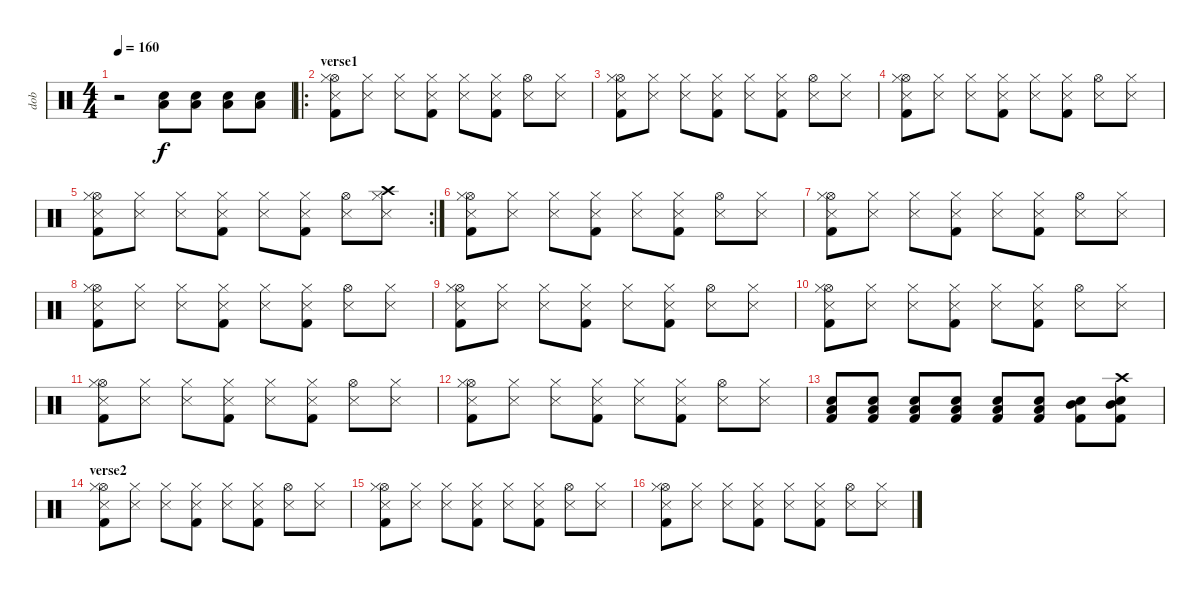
\track ("dob" "dob") {instrument percussion}
\staff {score}
\articulation defaults
\ts (4 4)
\tempo 160
\clef neutral
\ks c
r.2{dy f} ("Low Floor Tom (hit)" "Snare (hit) 2").8 ("Low Floor Tom (hit)" "Snare (hit) 2").8 ("Low Floor Tom (hit)" "Snare (hit) 2").8 ("Low Floor Tom (hit)" "Snare (hit) 2").8 |
\ro
\section ("" "verse1")
("Hi-Hat (open)" "Hi-Hat (closed)" "Snare (side stick) 3" "Kick (hit) 2").8 ("Hi-Hat (closed)" "Snare (side stick) 3").8 ("Hi-Hat (closed)" "Snare (side stick) 3").8 ("Hi-Hat (closed)" "Snare (side stick) 3" "Kick (hit) 2").8 ("Hi-Hat (closed)" "Snare (side stick) 3").8 ("Hi-Hat (closed)" "Snare (side stick) 3" "Kick (hit) 2").8 ("Hi-Hat (open)" "Snare (side stick) 3").8 ("Hi-Hat (closed)" "Snare (side stick) 3").8 |
("Hi-Hat (open)" "Hi-Hat (closed)" "Snare (side stick) 3" "Kick (hit) 2").8 ("Hi-Hat (closed)" "Snare (side stick) 3").8 ("Hi-Hat (closed)" "Snare (side stick) 3").8 ("Hi-Hat (closed)" "Snare (side stick) 3" "Kick (hit) 2").8 ("Hi-Hat (closed)" "Snare (side stick) 3").8 ("Hi-Hat (closed)" "Snare (side stick) 3" "Kick (hit) 2").8 ("Hi-Hat (open)" "Snare (side stick) 3").8 ("Hi-Hat (closed)" "Snare (side stick) 3").8 |
("Hi-Hat (open)" "Hi-Hat (closed)" "Snare (side stick) 3" "Kick (hit) 2").8 ("Hi-Hat (closed)" "Snare (side stick) 3").8 ("Hi-Hat (closed)" "Snare (side stick) 3").8 ("Hi-Hat (closed)" "Snare (side stick) 3" "Kick (hit) 2").8 ("Hi-Hat (closed)" "Snare (side stick) 3").8 ("Hi-Hat (closed)" "Snare (side stick) 3" "Kick (hit) 2").8 ("Hi-Hat (open)" "Snare (side stick) 3").8 ("Hi-Hat (closed)" "Snare (side stick) 3").8 |
\rc 2
("Hi-Hat (open)" "Hi-Hat (closed)" "Snare (side stick) 3" "Kick (hit) 2").8 ("Hi-Hat (closed)" "Snare (side stick) 3").8 ("Hi-Hat (closed)" "Snare (side stick) 3").8 ("Hi-Hat (closed)" "Snare (side stick) 3" "Kick (hit) 2").8 ("Hi-Hat (closed)" "Snare (side stick) 3").8 ("Hi-Hat (closed)" "Snare (side stick) 3" "Kick (hit) 2").8 ("Hi-Hat (open)" "Snare (side stick) 3").8 ("Crash high (hit)" "Hi-Hat (closed)" "Snare (side stick) 3").8 |
("Hi-Hat (open)" "Hi-Hat (closed)" "Snare (side stick) 3" "Kick (hit) 2").8 ("Hi-Hat (closed)" "Snare (side stick) 3").8 ("Hi-Hat (closed)" "Snare (side stick) 3").8 ("Hi-Hat (closed)" "Snare (side stick) 3" "Kick (hit) 2").8 ("Hi-Hat (closed)" "Snare (side stick) 3").8 ("Hi-Hat (closed)" "Snare (side stick) 3" "Kick (hit) 2").8 ("Hi-Hat (open)" "Snare (side stick) 3").8 ("Hi-Hat (closed)" "Snare (side stick) 3").8 |
("Hi-Hat (open)" "Hi-Hat (closed)" "Snare (side stick) 3" "Kick (hit) 2").8 ("Hi-Hat (closed)" "Snare (side stick) 3").8 ("Hi-Hat (closed)" "Snare (side stick) 3").8 ("Hi-Hat (closed)" "Snare (side stick) 3" "Kick (hit) 2").8 ("Hi-Hat (closed)" "Snare (side stick) 3").8 ("Hi-Hat (closed)" "Snare (side stick) 3" "Kick (hit) 2").8 ("Hi-Hat (open)" "Snare (side stick) 3").8 ("Hi-Hat (closed)" "Snare (side stick) 3").8 |
("Hi-Hat (open)" "Hi-Hat (closed)" "Snare (side stick) 3" "Kick (hit) 2").8 ("Hi-Hat (closed)" "Snare (side stick) 3").8 ("Hi-Hat (closed)" "Snare (side stick) 3").8 ("Hi-Hat (closed)" "Snare (side stick) 3" "Kick (hit) 2").8 ("Hi-Hat (closed)" "Snare (side stick) 3").8 ("Hi-Hat (closed)" "Snare (side stick) 3" "Kick (hit) 2").8 ("Hi-Hat (open)" "Snare (side stick) 3").8 ("Hi-Hat (closed)" "Snare (side stick) 3").8 |
("Hi-Hat (open)" "Hi-Hat (closed)" "Snare (side stick) 3" "Kick (hit) 2").8 ("Hi-Hat (closed)" "Snare (side stick) 3").8 ("Hi-Hat (closed)" "Snare (side stick) 3").8 ("Hi-Hat (closed)" "Snare (side stick) 3" "Kick (hit) 2").8 ("Hi-Hat (closed)" "Snare (side stick) 3").8 ("Hi-Hat (closed)" "Snare (side stick) 3" "Kick (hit) 2").8 ("Hi-Hat (open)" "Snare (side stick) 3").8 ("Hi-Hat (closed)" "Snare (side stick) 3").8 |
("Hi-Hat (open)" "Hi-Hat (closed)" "Snare (side stick) 3" "Kick (hit) 2").8 ("Hi-Hat (closed)" "Snare (side stick) 3").8 ("Hi-Hat (closed)" "Snare (side stick) 3").8 ("Hi-Hat (closed)" "Snare (side stick) 3" "Kick (hit) 2").8 ("Hi-Hat (closed)" "Snare (side stick) 3").8 ("Hi-Hat (closed)" "Snare (side stick) 3" "Kick (hit) 2").8 ("Hi-Hat (open)" "Snare (side stick) 3").8 ("Hi-Hat (closed)" "Snare (side stick) 3").8 |
("Hi-Hat (open)" "Hi-Hat (closed)" "Snare (side stick) 3" "Kick (hit) 2").8 ("Hi-Hat (closed)" "Snare (side stick) 3").8 ("Hi-Hat (closed)" "Snare (side stick) 3").8 ("Hi-Hat (closed)" "Snare (side stick) 3" "Kick (hit) 2").8 ("Hi-Hat (closed)" "Snare (side stick) 3").8 ("Hi-Hat (closed)" "Snare (side stick) 3" "Kick (hit) 2").8 ("Hi-Hat (open)" "Snare (side stick) 3").8 ("Hi-Hat (closed)" "Snare (side stick) 3").8 |
("Hi-Hat (open)" "Hi-Hat (closed)" "Snare (side stick) 3" "Kick (hit) 2").8 ("Hi-Hat (closed)" "Snare (side stick) 3").8 ("Hi-Hat (closed)" "Snare (side stick) 3").8 ("Hi-Hat (closed)" "Snare (side stick) 3" "Kick (hit) 2").8 ("Hi-Hat (closed)" "Snare (side stick) 3").8 ("Hi-Hat (closed)" "Snare (side stick) 3" "Kick (hit) 2").8 ("Hi-Hat (open)" "Snare (side stick) 3").8 ("Hi-Hat (closed)" "Snare (side stick) 3").8 |
("Snare (hit) 2" "Low Floor Tom (hit)" "Kick (hit) 2").8 ("Snare (hit) 2" "Low Floor Tom (hit)" "Kick (hit) 2").8 ("Snare (hit) 2" "Low Floor Tom (hit)" "Kick (hit) 2").8 ("Snare (hit) 2" "Low Floor Tom (hit)" "Kick (hit) 2").8 ("Snare (hit) 2" "Low Floor Tom (hit)" "Kick (hit) 2").8 ("Snare (hit) 2" "Low Floor Tom (hit)" "Kick (hit) 2").8 ("Snare (hit) 2" "Kick (hit) 2" "Mid Tom (hit)").8 ("Crash high (hit)" "Snare (hit) 2" "Kick (hit) 2" "Mid Tom (hit)").8 |
\section ("" "verse2")
("Hi-Hat (open)" "Hi-Hat (closed)" "Snare (side stick) 3" "Kick (hit) 2").8 ("Hi-Hat (closed)" "Snare (side stick) 3").8 ("Hi-Hat (closed)" "Snare (side stick) 3").8 ("Hi-Hat (closed)" "Snare (side stick) 3" "Kick (hit) 2").8 ("Hi-Hat (closed)" "Snare (side stick) 3").8 ("Hi-Hat (closed)" "Snare (side stick) 3" "Kick (hit) 2").8 ("Hi-Hat (open)" "Snare (side stick) 3").8 ("Hi-Hat (closed)" "Snare (side stick) 3").8 |
("Hi-Hat (open)" "Hi-Hat (closed)" "Snare (side stick) 3" "Kick (hit) 2").8 ("Hi-Hat (closed)" "Snare (side stick) 3").8 ("Hi-Hat (closed)" "Snare (side stick) 3").8 ("Hi-Hat (closed)" "Snare (side stick) 3" "Kick (hit) 2").8 ("Hi-Hat (closed)" "Snare (side stick) 3").8 ("Hi-Hat (closed)" "Snare (side stick) 3" "Kick (hit) 2").8 ("Hi-Hat (open)" "Snare (side stick) 3").8 ("Hi-Hat (closed)" "Snare (side stick) 3").8 |
("Hi-Hat (open)" "Hi-Hat (closed)" "Snare (side stick) 3" "Kick (hit) 2").8 ("Hi-Hat (closed)" "Snare (side stick) 3").8 ("Hi-Hat (closed)" "Snare (side stick) 3").8 ("Hi-Hat (closed)" "Snare (side stick) 3" "Kick (hit) 2").8 ("Hi-Hat (closed)" "Snare (side stick) 3").8 ("Hi-Hat (closed)" "Snare (side stick) 3" "Kick (hit) 2").8 ("Hi-Hat (open)" "Snare (side stick) 3").8 ("Hi-Hat (closed)" "Snare (side stick) 3").8
